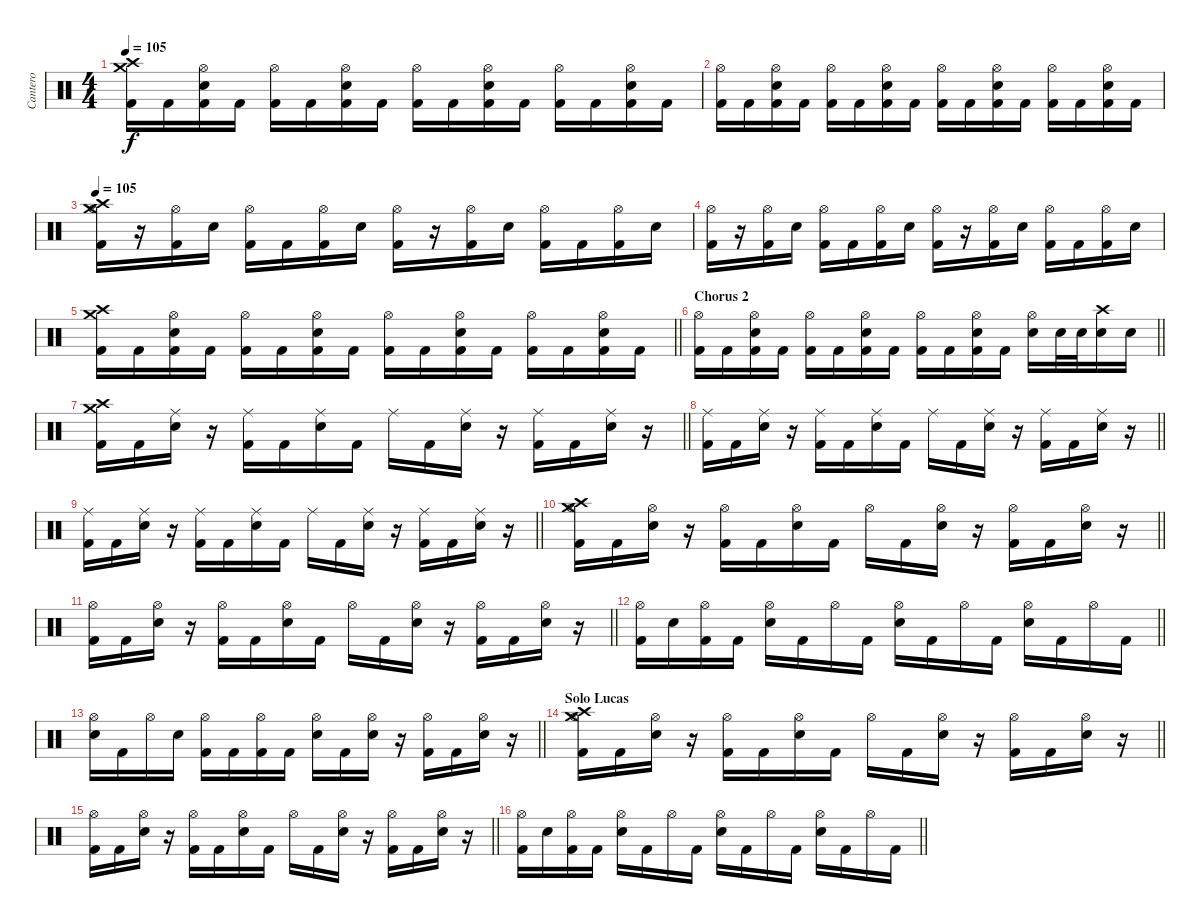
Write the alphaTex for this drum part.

\track ("Cantero" "Cantero") {instrument percussion}
\staff {score}
\articulation defaults
\ts (4 4)
\tempo 105
\clef neutral
\ks c
("Kick (hit) 2" "Crash medium (hit)" "Crash high (hit)").16{dy f} "Kick (hit) 2".16 ("Electric Snare (hit)" "Kick (hit) 2" "Hi-Hat (open)").16 "Kick (hit) 2".16 ("Kick (hit) 2" "Hi-Hat (open)").16 "Kick (hit) 2".16 ("Electric Snare (hit)" "Kick (hit) 2" "Hi-Hat (open)").16 "Kick (hit) 2".16 ("Kick (hit) 2" "Hi-Hat (open)").16 "Kick (hit) 2".16 ("Electric Snare (hit)" "Kick (hit) 2" "Hi-Hat (open)").16 "Kick (hit) 2".16 ("Kick (hit) 2" "Hi-Hat (open)").16 "Kick (hit) 2".16 ("Electric Snare (hit)" "Kick (hit) 2" "Hi-Hat (open)").16 "Kick (hit) 2".16 |
("Kick (hit) 2" "Hi-Hat (open)").16 "Kick (hit) 2".16 ("Electric Snare (hit)" "Kick (hit) 2" "Hi-Hat (open)").16 "Kick (hit) 2".16 ("Kick (hit) 2" "Hi-Hat (open)").16 "Kick (hit) 2".16 ("Electric Snare (hit)" "Kick (hit) 2" "Hi-Hat (open)").16 "Kick (hit) 2".16 ("Kick (hit) 2" "Hi-Hat (open)").16 "Kick (hit) 2".16 ("Electric Snare (hit)" "Kick (hit) 2" "Hi-Hat (open)").16 "Kick (hit) 2".16 ("Kick (hit) 2" "Hi-Hat (open)").16 "Kick (hit) 2".16 ("Electric Snare (hit)" "Kick (hit) 2" "Hi-Hat (open)").16 "Kick (hit) 2".16 |
\tempo 105
("Hi-Hat (open)" "Kick (hit) 2" "Crash high (hit)" "Crash medium (hit)").16 r.16 ("Kick (hit) 2" "Hi-Hat (open)").16 "Electric Snare (hit)".16 ("Hi-Hat (open)" "Kick (hit) 2").16 "Kick (hit) 2".16 ("Hi-Hat (open)" "Kick (hit) 2").16 "Electric Snare (hit)".16 ("Hi-Hat (open)" "Kick (hit) 2").16 r.16 ("Kick (hit) 2" "Hi-Hat (open)").16 "Electric Snare (hit)".16 ("Hi-Hat (open)" "Kick (hit) 2").16 "Kick (hit) 2".16 ("Hi-Hat (open)" "Kick (hit) 2").16 "Electric Snare (hit)".16 |
("Hi-Hat (open)" "Kick (hit) 2").16 r.16 ("Kick (hit) 2" "Hi-Hat (open)").16 "Electric Snare (hit)".16 ("Hi-Hat (open)" "Kick (hit) 2").16 "Kick (hit) 2".16 ("Hi-Hat (open)" "Kick (hit) 2").16 "Electric Snare (hit)".16 ("Hi-Hat (open)" "Kick (hit) 2").16 r.16 ("Kick (hit) 2" "Hi-Hat (open)").16 "Electric Snare (hit)".16 ("Hi-Hat (open)" "Kick (hit) 2").16 "Kick (hit) 2".16 ("Hi-Hat (open)" "Kick (hit) 2").16 "Electric Snare (hit)".16 |
\barLineRight lightlight
("Kick (hit) 2" "Crash medium (hit)" "Crash high (hit)").16 "Kick (hit) 2".16 ("Electric Snare (hit)" "Kick (hit) 2" "Hi-Hat (open)").16 "Kick (hit) 2".16 ("Kick (hit) 2" "Hi-Hat (open)").16 "Kick (hit) 2".16 ("Electric Snare (hit)" "Kick (hit) 2" "Hi-Hat (open)").16 "Kick (hit) 2".16 ("Kick (hit) 2" "Hi-Hat (open)").16 "Kick (hit) 2".16 ("Electric Snare (hit)" "Kick (hit) 2" "Hi-Hat (open)").16 "Kick (hit) 2".16 ("Kick (hit) 2" "Hi-Hat (open)").16 "Kick (hit) 2".16 ("Electric Snare (hit)" "Kick (hit) 2" "Hi-Hat (open)").16 "Kick (hit) 2".16 |
\section ("" "Chorus 2")
\barLineRight lightlight
("Kick (hit) 2" "Hi-Hat (open)").16 "Kick (hit) 2".16 ("Electric Snare (hit)" "Kick (hit) 2" "Hi-Hat (open)").16 "Kick (hit) 2".16 ("Kick (hit) 2" "Hi-Hat (open)").16 "Kick (hit) 2".16 ("Electric Snare (hit)" "Kick (hit) 2" "Hi-Hat (open)").16 "Kick (hit) 2".16 ("Kick (hit) 2" "Hi-Hat (open)").16 "Kick (hit) 2".16 ("Electric Snare (hit)" "Kick (hit) 2" "Hi-Hat (open)").16 "Kick (hit) 2".16 ("Electric Snare (hit)" "Hi-Hat (open)").16 "Electric Snare (hit)".32 "Electric Snare (hit)".32 ("Electric Snare (hit)" "Crash high (hit)").16 "Electric Snare (hit)".16 |
\barLineRight lightlight
("Kick (hit) 2" "Crash medium (hit)" "Crash high (hit)").16 "Kick (hit) 2".16 ("Electric Snare (hit)" "Ride (middle)").16 r.16 ("Kick (hit) 2" "Ride (middle)").16 "Kick (hit) 2".16 ("Electric Snare (hit)" "Ride (middle)").16 "Kick (hit) 2".16 "Ride (middle)".16 "Kick (hit) 2".16 ("Electric Snare (hit)" "Ride (middle)").16 r.16 ("Kick (hit) 2" "Ride (middle)").16 "Kick (hit) 2".16 ("Electric Snare (hit)" "Ride (middle)").16 r.16 |
\barLineRight lightlight
("Kick (hit) 2" "Ride (middle)").16 "Kick (hit) 2".16 ("Electric Snare (hit)" "Ride (middle)").16 r.16 ("Kick (hit) 2" "Ride (middle)").16 "Kick (hit) 2".16 ("Electric Snare (hit)" "Ride (middle)").16 "Kick (hit) 2".16 "Ride (middle)".16 "Kick (hit) 2".16 ("Electric Snare (hit)" "Ride (middle)").16 r.16 ("Kick (hit) 2" "Ride (middle)").16 "Kick (hit) 2".16 ("Electric Snare (hit)" "Ride (middle)").16 r.16 |
\barLineRight lightlight
("Kick (hit) 2" "Ride (middle)").16 "Kick (hit) 2".16 ("Electric Snare (hit)" "Ride (middle)").16 r.16 ("Kick (hit) 2" "Ride (middle)").16 "Kick (hit) 2".16 ("Electric Snare (hit)" "Ride (middle)").16 "Kick (hit) 2".16 "Ride (middle)".16 "Kick (hit) 2".16 ("Electric Snare (hit)" "Ride (middle)").16 r.16 ("Kick (hit) 2" "Ride (middle)").16 "Kick (hit) 2".16 ("Electric Snare (hit)" "Ride (middle)").16 r.16 |
\barLineRight lightlight
("Kick (hit) 2" "Crash high (hit)" "Hi-Hat (open)" "Crash medium (hit)").16 "Kick (hit) 2".16 ("Electric Snare (hit)" "Hi-Hat (open)").16 r.16 ("Kick (hit) 2" "Hi-Hat (open)").16 "Kick (hit) 2".16 ("Electric Snare (hit)" "Hi-Hat (open)").16 "Kick (hit) 2".16 "Hi-Hat (open)".16 "Kick (hit) 2".16 ("Electric Snare (hit)" "Hi-Hat (open)").16 r.16 ("Kick (hit) 2" "Hi-Hat (open)").16 "Kick (hit) 2".16 ("Electric Snare (hit)" "Hi-Hat (open)").16 r.16 |
\barLineRight lightlight
("Kick (hit) 2" "Hi-Hat (open)").16 "Kick (hit) 2".16 ("Electric Snare (hit)" "Hi-Hat (open)").16 r.16 ("Kick (hit) 2" "Hi-Hat (open)").16 "Kick (hit) 2".16 ("Electric Snare (hit)" "Hi-Hat (open)").16 "Kick (hit) 2".16 "Hi-Hat (open)".16 "Kick (hit) 2".16 ("Electric Snare (hit)" "Hi-Hat (open)").16 r.16 ("Kick (hit) 2" "Hi-Hat (open)").16 "Kick (hit) 2".16 ("Electric Snare (hit)" "Hi-Hat (open)").16 r.16 |
\barLineRight lightlight
("Kick (hit) 2" "Hi-Hat (open)").16 "Electric Snare (hit)".16 ("Kick (hit) 2" "Hi-Hat (open)").16 "Kick (hit) 2".16 ("Electric Snare (hit)" "Hi-Hat (open)").16 "Kick (hit) 2".16 "Hi-Hat (open)".16 "Kick (hit) 2".16 ("Electric Snare (hit)" "Hi-Hat (open)").16 "Kick (hit) 2".16 "Hi-Hat (open)".16 "Kick (hit) 2".16 ("Electric Snare (hit)" "Hi-Hat (open)").16 "Kick (hit) 2".16 "Hi-Hat (open)".16 "Kick (hit) 2".16 |
\barLineRight lightlight
("Electric Snare (hit)" "Hi-Hat (open)").16 "Kick (hit) 2".16 "Hi-Hat (open)".16 "Electric Snare (hit)".16 ("Kick (hit) 2" "Hi-Hat (open)").16 "Kick (hit) 2".16 ("Kick (hit) 2" "Hi-Hat (open)").16 "Kick (hit) 2".16 ("Electric Snare (hit)" "Hi-Hat (open)").16 "Kick (hit) 2".16 ("Electric Snare (hit)" "Hi-Hat (open)").16 r.16 ("Kick (hit) 2" "Hi-Hat (open)").16 "Kick (hit) 2".16 ("Electric Snare (hit)" "Hi-Hat (open)").16 r.16 |
\section ("" "Solo Lucas")
\barLineRight lightlight
("Kick (hit) 2" "Crash high (hit)" "Hi-Hat (open)" "Crash medium (hit)").16 "Kick (hit) 2".16 ("Electric Snare (hit)" "Hi-Hat (open)").16 r.16 ("Kick (hit) 2" "Hi-Hat (open)").16 "Kick (hit) 2".16 ("Electric Snare (hit)" "Hi-Hat (open)").16 "Kick (hit) 2".16 "Hi-Hat (open)".16 "Kick (hit) 2".16 ("Electric Snare (hit)" "Hi-Hat (open)").16 r.16 ("Kick (hit) 2" "Hi-Hat (open)").16 "Kick (hit) 2".16 ("Electric Snare (hit)" "Hi-Hat (open)").16 r.16 |
\barLineRight lightlight
("Kick (hit) 2" "Hi-Hat (open)").16 "Kick (hit) 2".16 ("Electric Snare (hit)" "Hi-Hat (open)").16 r.16 ("Kick (hit) 2" "Hi-Hat (open)").16 "Kick (hit) 2".16 ("Electric Snare (hit)" "Hi-Hat (open)").16 "Kick (hit) 2".16 "Hi-Hat (open)".16 "Kick (hit) 2".16 ("Electric Snare (hit)" "Hi-Hat (open)").16 r.16 ("Kick (hit) 2" "Hi-Hat (open)").16 "Kick (hit) 2".16 ("Electric Snare (hit)" "Hi-Hat (open)").16 r.16 |
\barLineRight lightlight
("Kick (hit) 2" "Hi-Hat (open)").16 "Electric Snare (hit)".16 ("Kick (hit) 2" "Hi-Hat (open)").16 "Kick (hit) 2".16 ("Electric Snare (hit)" "Hi-Hat (open)").16 "Kick (hit) 2".16 "Hi-Hat (open)".16 "Kick (hit) 2".16 ("Electric Snare (hit)" "Hi-Hat (open)").16 "Kick (hit) 2".16 "Hi-Hat (open)".16 "Kick (hit) 2".16 ("Electric Snare (hit)" "Hi-Hat (open)").16 "Kick (hit) 2".16 "Hi-Hat (open)".16 "Kick (hit) 2".16
